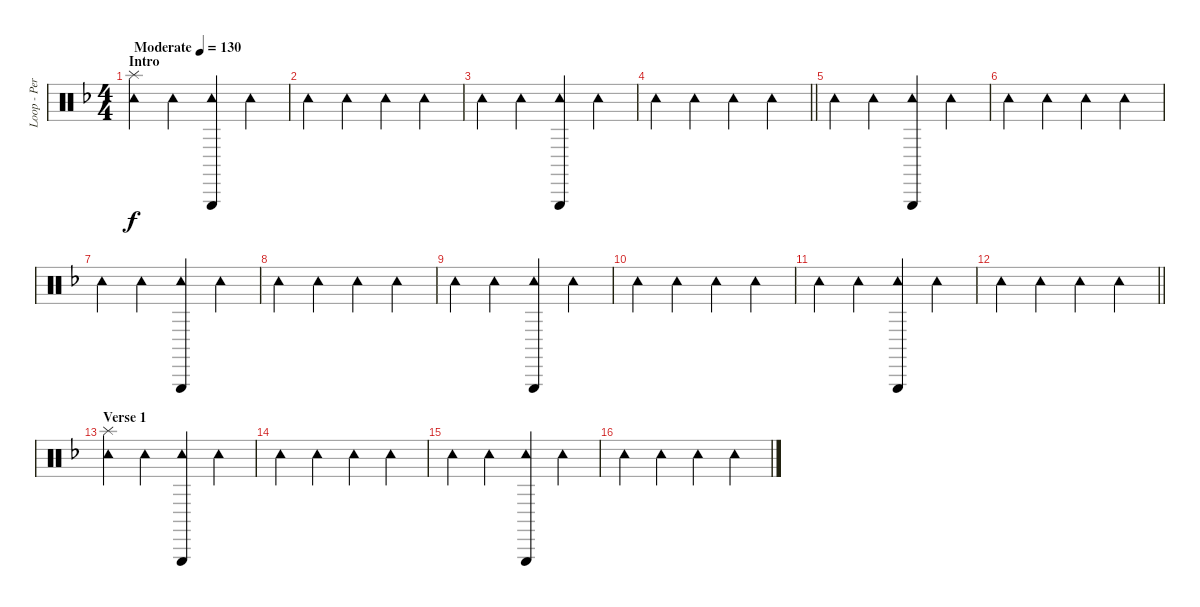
\track ("Loop - Percussion FX" "Loop - Per") {instrument percussion}
\staff {score}
\articulation defaults
\ts (4 4)
\section ("" "Intro")
\tempo (130 "Moderate")
\clef neutral
\ks f
("Tambourine (hit)" "Splash (hit)").4{dy f} "Tambourine (hit)".4 ("Tambourine (hit)" "Triangle (hit)").4 "Tambourine (hit)".4 |
"Tambourine (hit)".4 "Tambourine (hit)".4 "Tambourine (hit)".4 "Tambourine (hit)".4 |
"Tambourine (hit)".4 "Tambourine (hit)".4 ("Tambourine (hit)" "Triangle (hit)").4 "Tambourine (hit)".4 |
\barLineRight lightlight "Tambourine (hit)".4 "Tambourine (hit)".4 "Tambourine (hit)".4 "Tambourine (hit)".4
|
"Tambourine (hit)".4 "Tambourine (hit)".4 ("Tambourine (hit)" "Triangle (hit)").4 "Tambourine (hit)".4 |
"Tambourine (hit)".4 "Tambourine (hit)".4 "Tambourine (hit)".4 "Tambourine (hit)".4 |
"Tambourine (hit)".4 "Tambourine (hit)".4 ("Tambourine (hit)" "Triangle (hit)").4 "Tambourine (hit)".4 |
"Tambourine (hit)".4 "Tambourine (hit)".4 "Tambourine (hit)".4 "Tambourine (hit)".4 |
"Tambourine (hit)".4 "Tambourine (hit)".4 ("Tambourine (hit)" "Triangle (hit)").4 "Tambourine (hit)".4 |
"Tambourine (hit)".4 "Tambourine (hit)".4 "Tambourine (hit)".4 "Tambourine (hit)".4 |
"Tambourine (hit)".4 "Tambourine (hit)".4 ("Tambourine (hit)" "Triangle (hit)").4 "Tambourine (hit)".4 |
\barLineRight lightlight "Tambourine (hit)".4 "Tambourine (hit)".4 "Tambourine (hit)".4 "Tambourine (hit)".4
|
\section ("" "Verse 1")
("Tambourine (hit)" "Splash (hit)").4 "Tambourine (hit)".4 ("Tambourine (hit)" "Triangle (hit)").4 "Tambourine (hit)".4 |
"Tambourine (hit)".4 "Tambourine (hit)".4 "Tambourine (hit)".4 "Tambourine (hit)".4 |
"Tambourine (hit)".4 "Tambourine (hit)".4 ("Tambourine (hit)" "Triangle (hit)").4 "Tambourine (hit)".4 |
"Tambourine (hit)".4 "Tambourine (hit)".4 "Tambourine (hit)".4 "Tambourine (hit)".4
